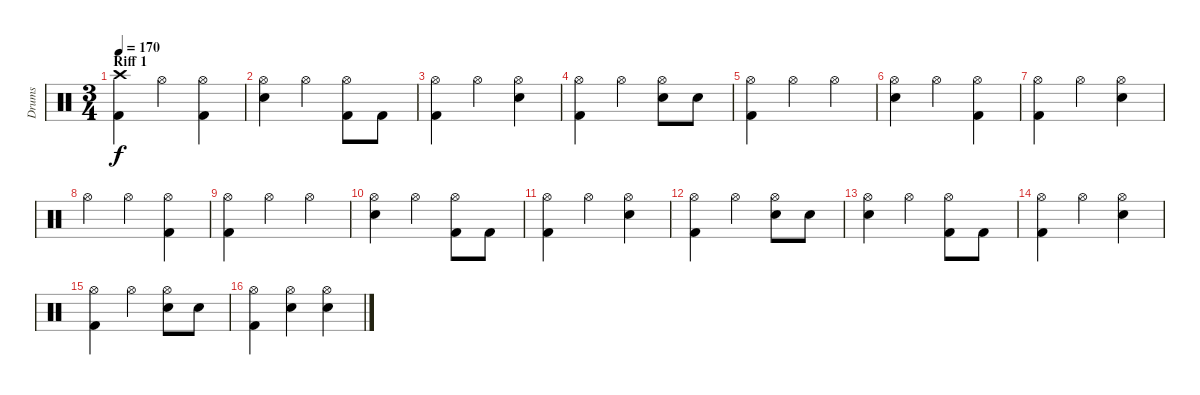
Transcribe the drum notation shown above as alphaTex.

\track ("Drums" "Drums") {instrument percussion}
\staff {score}
\articulation defaults
\ts (3 4)
\section ("" "Riff 1")
\tempo 170
\clef neutral
\ks c
("Crash high (hit)" "Kick (hit) 2").4{dy f} "Hi-Hat (open)".4 ("Hi-Hat (open)" "Kick (hit) 2").4 |
("Hi-Hat (open)" "Electric Snare (hit)").4 "Hi-Hat (open)".4 ("Hi-Hat (open)" "Kick (hit) 2").8 "Kick (hit) 2".8 |
("Hi-Hat (open)" "Kick (hit) 2").4 "Hi-Hat (open)".4 ("Hi-Hat (open)" "Electric Snare (hit)").4 |
("Hi-Hat (open)" "Kick (hit) 2").4 "Hi-Hat (open)".4 ("Hi-Hat (open)" "Electric Snare (hit)").8 "Electric Snare (hit)".8 |
("Hi-Hat (open)" "Kick (hit) 2").4 "Hi-Hat (open)".4 "Hi-Hat (open)".4 |
("Hi-Hat (open)" "Electric Snare (hit)").4 "Hi-Hat (open)".4 ("Hi-Hat (open)" "Kick (hit) 2").4 |
("Hi-Hat (open)" "Kick (hit) 2").4 "Hi-Hat (open)".4 ("Hi-Hat (open)" "Electric Snare (hit)").4 |
"Hi-Hat (open)".4 "Hi-Hat (open)".4 ("Hi-Hat (open)" "Kick (hit) 2").4 |
("Hi-Hat (open)" "Kick (hit) 2").4 "Hi-Hat (open)".4 "Hi-Hat (open)".4 |
("Hi-Hat (open)" "Electric Snare (hit)").4 "Hi-Hat (open)".4 ("Hi-Hat (open)" "Kick (hit) 2").8 "Kick (hit) 2".8 |
("Hi-Hat (open)" "Kick (hit) 2").4 "Hi-Hat (open)".4 ("Hi-Hat (open)" "Electric Snare (hit)").4 |
("Hi-Hat (open)" "Kick (hit) 2").4 "Hi-Hat (open)".4 ("Hi-Hat (open)" "Electric Snare (hit)").8 "Electric Snare (hit)".8 |
("Hi-Hat (open)" "Electric Snare (hit)").4 "Hi-Hat (open)".4 ("Hi-Hat (open)" "Kick (hit) 2").8 "Kick (hit) 2".8 |
("Hi-Hat (open)" "Kick (hit) 2").4 "Hi-Hat (open)".4 ("Hi-Hat (open)" "Electric Snare (hit)").4 |
("Hi-Hat (open)" "Kick (hit) 2").4 "Hi-Hat (open)".4 ("Hi-Hat (open)" "Electric Snare (hit)").8 "Electric Snare (hit)".8 |
("Hi-Hat (open)" "Kick (hit) 2").4 ("Hi-Hat (open)" "Electric Snare (hit)").4 ("Hi-Hat (open)" "Electric Snare (hit)").4
